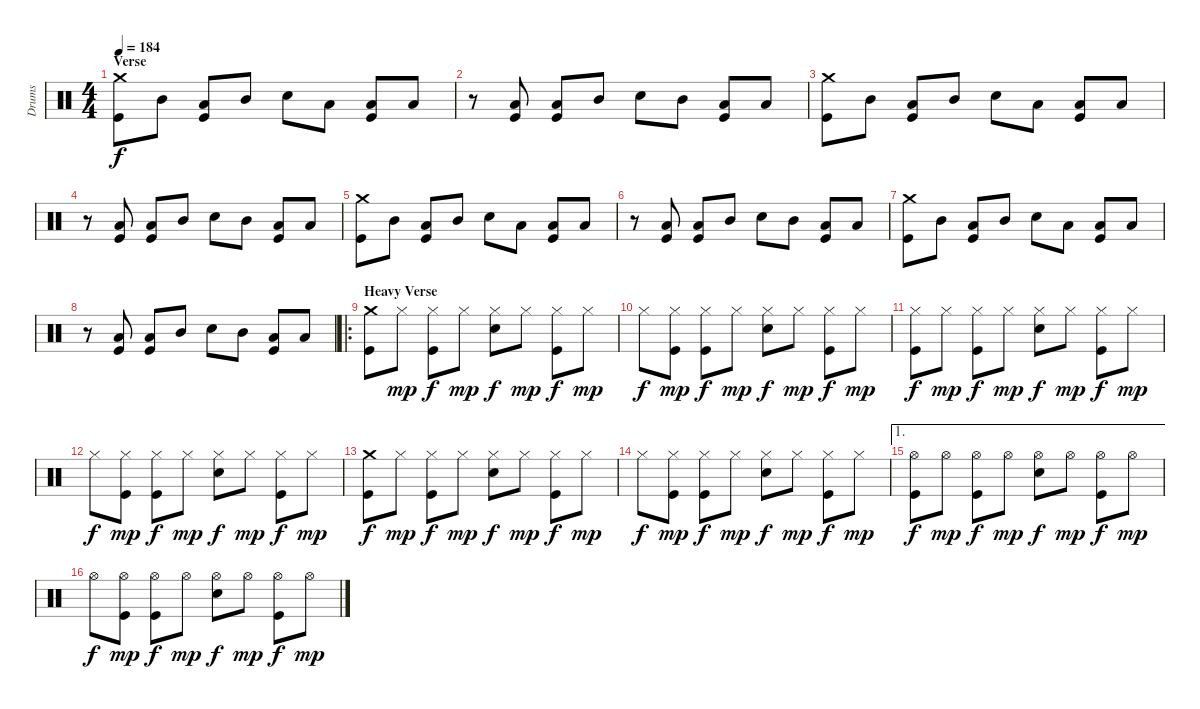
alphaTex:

\track ("Drums" "Drums") {instrument percussion}
\staff {score}
\articulation defaults
\ts (4 4)
\section ("" "Verse")
\tempo 184
\clef neutral
\ks c
("Crash medium (hit)" "Kick (hit)").8{dy f} "Mid Tom (hit)".8 ("Low Tom (hit)" "Kick (hit)").8 "Mid Tom (hit)".8 "Snare (hit) 2".8 "Low Tom (hit)".8 ("Low Tom (hit)" "Kick (hit)").8 "Low Tom (hit)".8 |
r.8 ("Low Tom (hit)" "Kick (hit)").8 ("Low Tom (hit)" "Kick (hit)").8 "Mid Tom (hit)".8 "Snare (hit) 2".8 "Mid Tom (hit)".8 ("Low Tom (hit)" "Kick (hit)").8 "Low Tom (hit)".8 |
("Crash medium (hit)" "Kick (hit)").8 "Mid Tom (hit)".8 ("Low Tom (hit)" "Kick (hit)").8 "Mid Tom (hit)".8 "Snare (hit) 2".8 "Low Tom (hit)".8 ("Low Tom (hit)" "Kick (hit)").8 "Low Tom (hit)".8 |
r.8 ("Low Tom (hit)" "Kick (hit)").8 ("Low Tom (hit)" "Kick (hit)").8 "Mid Tom (hit)".8 "Snare (hit) 2".8 "Mid Tom (hit)".8 ("Low Tom (hit)" "Kick (hit)").8 "Low Tom (hit)".8 |
("Crash medium (hit)" "Kick (hit)").8 "Mid Tom (hit)".8 ("Low Tom (hit)" "Kick (hit)").8 "Mid Tom (hit)".8 "Snare (hit) 2".8 "Low Tom (hit)".8 ("Low Tom (hit)" "Kick (hit)").8 "Low Tom (hit)".8 |
r.8 ("Low Tom (hit)" "Kick (hit)").8 ("Low Tom (hit)" "Kick (hit)").8 "Mid Tom (hit)".8 "Snare (hit) 2".8 "Mid Tom (hit)".8 ("Low Tom (hit)" "Kick (hit)").8 "Low Tom (hit)".8 |
("Crash medium (hit)" "Kick (hit)").8 "Mid Tom (hit)".8 ("Low Tom (hit)" "Kick (hit)").8 "Mid Tom (hit)".8 "Snare (hit) 2".8 "Low Tom (hit)".8 ("Low Tom (hit)" "Kick (hit)").8 "Low Tom (hit)".8 |
r.8 ("Low Tom (hit)" "Kick (hit)").8 ("Low Tom (hit)" "Kick (hit)").8 "Mid Tom (hit)".8 "Snare (hit) 2".8 "Mid Tom (hit)".8 ("Low Tom (hit)" "Kick (hit)").8 "Low Tom (hit)".8 |
\ro
\section ("" "Heavy Verse")
("Crash medium (hit)" "Kick (hit)").8 "Hi-Hat (closed)".8{dy mp} ("Hi-Hat (closed)" "Kick (hit)").8{dy f} "Hi-Hat (closed)".8{dy mp} ("Hi-Hat (closed)" "Snare (hit) 2").8{dy f} "Hi-Hat (closed)".8{dy mp} ("Hi-Hat (closed)" "Kick (hit)").8{dy f} "Hi-Hat (closed)".8{dy mp} |
"Hi-Hat (closed)".8{dy f} ("Hi-Hat (closed)" "Kick (hit)").8{dy mp} ("Hi-Hat (closed)" "Kick (hit)").8{dy f} "Hi-Hat (closed)".8{dy mp} ("Hi-Hat (closed)" "Snare (hit) 2").8{dy f} "Hi-Hat (closed)".8{dy mp} ("Hi-Hat (closed)" "Kick (hit)").8{dy f} "Hi-Hat (closed)".8{dy mp} |
("Hi-Hat (closed)" "Kick (hit)").8{dy f} "Hi-Hat (closed)".8{dy mp} ("Hi-Hat (closed)" "Kick (hit)").8{dy f} "Hi-Hat (closed)".8{dy mp} ("Hi-Hat (closed)" "Snare (hit) 2").8{dy f} "Hi-Hat (closed)".8{dy mp} ("Hi-Hat (closed)" "Kick (hit)").8{dy f} "Hi-Hat (closed)".8{dy mp} |
"Hi-Hat (closed)".8{dy f} ("Hi-Hat (closed)" "Kick (hit)").8{dy mp} ("Hi-Hat (closed)" "Kick (hit)").8{dy f} "Hi-Hat (closed)".8{dy mp} ("Hi-Hat (closed)" "Snare (hit) 2").8{dy f} "Hi-Hat (closed)".8{dy mp} ("Hi-Hat (closed)" "Kick (hit)").8{dy f} "Hi-Hat (closed)".8{dy mp} |
("Crash medium (hit)" "Kick (hit)").8{dy f} "Hi-Hat (closed)".8{dy mp} ("Hi-Hat (closed)" "Kick (hit)").8{dy f} "Hi-Hat (closed)".8{dy mp} ("Hi-Hat (closed)" "Snare (hit) 2").8{dy f} "Hi-Hat (closed)".8{dy mp} ("Hi-Hat (closed)" "Kick (hit)").8{dy f} "Hi-Hat (closed)".8{dy mp} |
"Hi-Hat (closed)".8{dy f} ("Hi-Hat (closed)" "Kick (hit)").8{dy mp} ("Hi-Hat (closed)" "Kick (hit)").8{dy f} "Hi-Hat (closed)".8{dy mp} ("Hi-Hat (closed)" "Snare (hit) 2").8{dy f} "Hi-Hat (closed)".8{dy mp} ("Hi-Hat (closed)" "Kick (hit)").8{dy f} "Hi-Hat (closed)".8{dy mp} |
\ae 1
("Hi-Hat (open)" "Kick (hit)").8{dy f} "Hi-Hat (open)".8{dy mp} ("Hi-Hat (open)" "Kick (hit)").8{dy f} "Hi-Hat (open)".8{dy mp} ("Hi-Hat (open)" "Snare (hit) 2").8{dy f} "Hi-Hat (open)".8{dy mp} ("Hi-Hat (open)" "Kick (hit)").8{dy f} "Hi-Hat (open)".8{dy mp} |
"Hi-Hat (open)".8{dy f} ("Hi-Hat (open)" "Kick (hit)").8{dy mp} ("Hi-Hat (open)" "Kick (hit)").8{dy f} "Hi-Hat (open)".8{dy mp} ("Hi-Hat (open)" "Snare (hit) 2").8{dy f} "Hi-Hat (open)".8{dy mp} ("Hi-Hat (open)" "Kick (hit)").8{dy f} "Hi-Hat (open)".8{dy mp}
